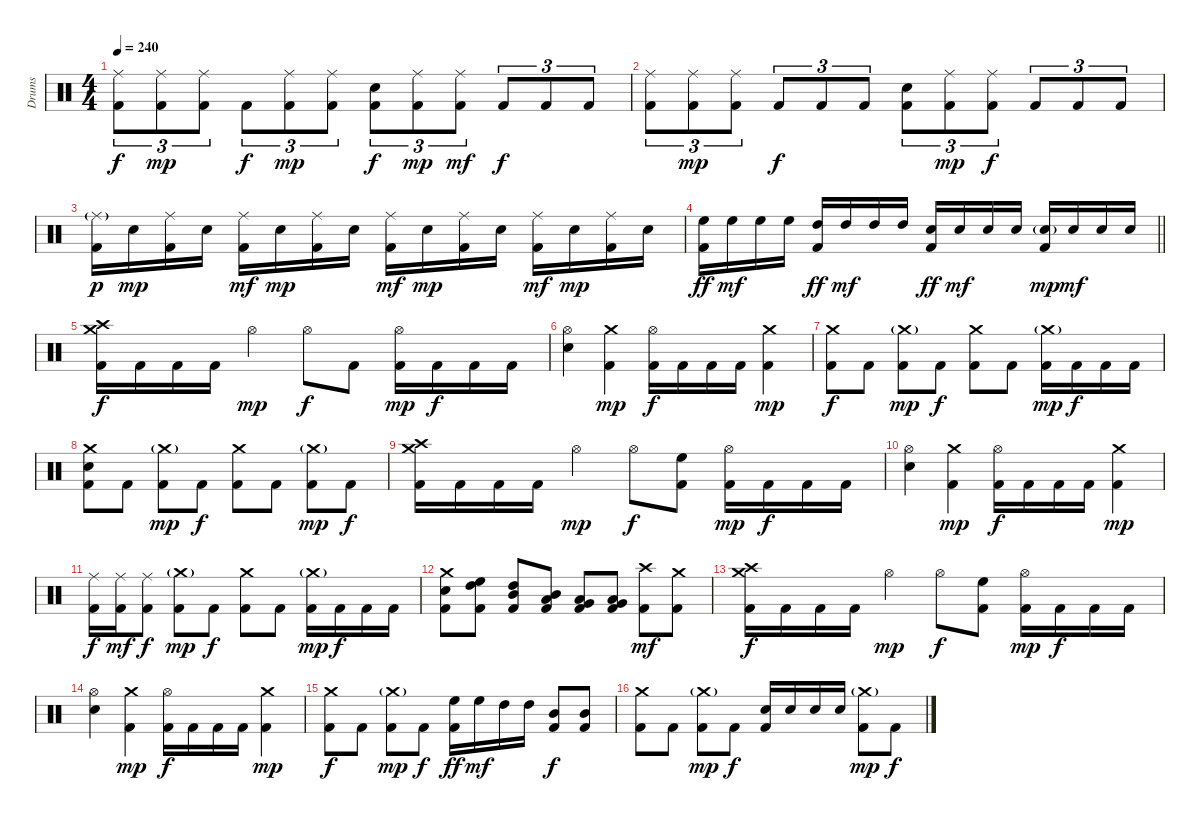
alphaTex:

\track ("Drums" "Drums") {instrument percussion}
\staff {score}
\articulation defaults
\ts (4 4)
\tempo 240
\clef neutral
\ks c
("Ride (middle)" "Kick (hit) 2").8{tu (3 2) dy f} ("Ride (middle)" "Kick (hit) 2").8{tu (3 2) dy mp} ("Ride (middle)" "Kick (hit) 2").8{tu (3 2)} "Kick (hit) 2".8{tu (3 2) dy f} ("Ride (middle)" "Kick (hit) 2").8{tu (3 2) dy mp} ("Ride (middle)" "Kick (hit) 2").8{tu (3 2)} ("Electric Snare (hit)" "Kick (hit) 2").8{tu (3 2) dy f} ("Ride (middle)" "Kick (hit) 2").8{tu (3 2) dy mp} ("Ride (middle)" "Kick (hit) 2").8{tu (3 2) dy mf} "Kick (hit) 2".8{tu (3 2) dy f} "Kick (hit) 2".8{tu (3 2)} "Kick (hit) 2".8{tu (3 2)} |
("Ride (middle)" "Kick (hit) 2").8{tu (3 2)} ("Ride (middle)" "Kick (hit) 2").8{tu (3 2) dy mp} ("Ride (middle)" "Kick (hit) 2").8{tu (3 2)} "Kick (hit) 2".8{tu (3 2) dy f} "Kick (hit) 2".8{tu (3 2)} "Kick (hit) 2".8{tu (3 2)} ("Electric Snare (hit)" "Kick (hit) 2").8{tu (3 2)} ("Ride (middle)" "Kick (hit) 2").8{tu (3 2) dy mp} ("Ride (middle)" "Kick (hit) 2").8{tu (3 2) dy f} "Kick (hit) 2".8{tu (3 2)} "Kick (hit) 2".8{tu (3 2)} "Kick (hit) 2".8{tu (3 2)} |
("Ride (middle)"{g} "Kick (hit) 2").16{dy p} "Electric Snare (hit)".16{dy mp} ("Ride (middle)" "Kick (hit) 2").16 "Electric Snare (hit)".16 ("Ride (middle)" "Kick (hit) 2").16{dy mf} "Electric Snare (hit)".16{dy mp} ("Ride (middle)" "Kick (hit) 2").16 "Electric Snare (hit)".16 ("Ride (middle)" "Kick (hit) 2").16{dy mf} "Electric Snare (hit)".16{dy mp} ("Ride (middle)" "Kick (hit) 2").16 "Electric Snare (hit)".16 ("Ride (middle)" "Kick (hit) 2").16{dy mf} "Electric Snare (hit)".16{dy mp} ("Ride (middle)" "Kick (hit) 2").16 "Electric Snare (hit)".16 |
\barLineRight lightlight
("High Floor Tom (hit)" "Kick (hit) 2").16{dy ff} "High Floor Tom (hit)".16{dy mf} "High Floor Tom (hit)".16 "High Floor Tom (hit)".16 ("High Tom (hit)" "Kick (hit) 2").16{dy ff} "High Tom (hit)".16{dy mf} "High Tom (hit)".16 "High Tom (hit)".16 ("Electric Snare (hit)" "Kick (hit) 2").16{dy ff} "Electric Snare (hit)".16{dy mf} "Electric Snare (hit)".16 "Electric Snare (hit)".16 ("Electric Snare (hit)"{g} "Kick (hit) 2").16{dy mp} "Electric Snare (hit)".16{dy mf} "Electric Snare (hit)".16 "Electric Snare (hit)".16 |
("Crash high (hit)" "Crash medium (hit)" "Kick (hit) 2").16{dy f} "Kick (hit) 2".16 "Kick (hit) 2".16 "Kick (hit) 2".16 "Hi-Hat (open)".4{dy mp} "Hi-Hat (open)".8{dy f} "Kick (hit) 2".8 ("Hi-Hat (open)" "Kick (hit) 2").16{dy mp} "Kick (hit) 2".16{dy f} "Kick (hit) 2".16 "Kick (hit) 2".16 |
("Hi-Hat (open)" "Electric Snare (hit)").4 ("Crash medium (hit)" "Kick (hit) 2").4{dy mp} ("Hi-Hat (open)" "Kick (hit) 2").16{dy f} "Kick (hit) 2".16 "Kick (hit) 2".16 "Kick (hit) 2".16 ("Crash medium (hit)" "Kick (hit) 2").4{dy mp} |
("Crash medium (hit)" "Kick (hit) 2").8{dy f} "Kick (hit) 2".8 ("Crash medium (hit)"{g} "Kick (hit) 2").8{dy mp} "Kick (hit) 2".8{dy f} ("Crash medium (hit)" "Kick (hit) 2").8 "Kick (hit) 2".8 ("Crash medium (hit)"{g} "Kick (hit) 2").16{dy mp} "Kick (hit) 2".16{dy f} "Kick (hit) 2".16 "Kick (hit) 2".16 |
("Crash medium (hit)" "Electric Snare (hit)" "Kick (hit) 2").8 "Kick (hit) 2".8 ("Crash medium (hit)"{g} "Kick (hit) 2").8{dy mp} "Kick (hit) 2".8{dy f} ("Crash medium (hit)" "Kick (hit) 2").8 "Kick (hit) 2".8 ("Crash medium (hit)"{g} "Kick (hit) 2").8{dy mp} "Kick (hit) 2".8{dy f} |
("Crash high (hit)" "Crash medium (hit)" "Kick (hit) 2").16 "Kick (hit) 2".16 "Kick (hit) 2".16 "Kick (hit) 2".16 "Hi-Hat (open)".4{dy mp} "Hi-Hat (open)".8{dy f} ("High Floor Tom (hit)" "Kick (hit) 2").8 ("Hi-Hat (open)" "Kick (hit) 2").16{dy mp} "Kick (hit) 2".16{dy f} "Kick (hit) 2".16 "Kick (hit) 2".16 |
("Hi-Hat (open)" "Electric Snare (hit)").4 ("Crash medium (hit)" "Kick (hit) 2").4{dy mp} ("Hi-Hat (open)" "Kick (hit) 2").16{dy f} "Kick (hit) 2".16 "Kick (hit) 2".16 "Kick (hit) 2".16 ("Crash medium (hit)" "Kick (hit) 2").4{dy mp} |
("Ride (middle)" "Kick (hit) 2").16{dy f} ("Ride (middle)" "Kick (hit) 2").16{dy mf} ("Ride (middle)" "Kick (hit) 2").8{dy f} ("Crash medium (hit)"{g} "Kick (hit) 2").8{dy mp} "Kick (hit) 2".8{dy f} ("Crash medium (hit)" "Kick (hit) 2").8 "Kick (hit) 2".8 ("Crash medium (hit)"{g} "Kick (hit) 2").16{dy mp} "Kick (hit) 2".16{dy f} "Kick (hit) 2".16 "Kick (hit) 2".16 |
("Crash medium (hit)" "Electric Snare (hit)" "Kick (hit) 2").8 ("High Floor Tom (hit)" "High Tom (hit)" "Kick (hit) 2").8 ("High Tom (hit)" "Mid Tom (hit)" "Kick (hit) 2").8 ("Mid Tom (hit)" "Low Tom (hit)" "Kick (hit) 2").8 ("Low Tom (hit)" "Very Low Tom (hit)" "Kick (hit) 2").8 ("Very Low Tom (hit)" "Low Floor Tom (hit)" "Kick (hit) 2").8 ("Crash high (hit)" "Kick (hit) 2").8{dy mf} ("Crash medium (hit)" "Kick (hit) 2").8 |
("Crash high (hit)" "Crash medium (hit)" "Kick (hit) 2").16{dy f} "Kick (hit) 2".16 "Kick (hit) 2".16 "Kick (hit) 2".16 "Hi-Hat (open)".4{dy mp} "Hi-Hat (open)".8{dy f} ("High Floor Tom (hit)" "Kick (hit) 2").8 ("Hi-Hat (open)" "Kick (hit) 2").16{dy mp} "Kick (hit) 2".16{dy f} "Kick (hit) 2".16 "Kick (hit) 2".16 |
("Hi-Hat (open)" "Electric Snare (hit)").4 ("Crash medium (hit)" "Kick (hit) 2").4{dy mp} ("Hi-Hat (open)" "Kick (hit) 2").16{dy f} "Kick (hit) 2".16 "Kick (hit) 2".16 "Kick (hit) 2".16 ("Crash medium (hit)" "Kick (hit) 2").4{dy mp} |
("Crash medium (hit)" "Kick (hit) 2").8{dy f} "Kick (hit) 2".8 ("Crash medium (hit)"{g} "Kick (hit) 2").8{dy mp} "Kick (hit) 2".8{dy f} ("High Floor Tom (hit)" "Kick (hit) 2").16{dy ff} "High Floor Tom (hit)".16{dy mf} "High Tom (hit)".16 "High Tom (hit)".16 ("Mid Tom (hit)" "Kick (hit) 2").8{dy f} ("Mid Tom (hit)" "Kick (hit) 2").8 |
("Crash medium (hit)" "Kick (hit) 2").8 "Kick (hit) 2".8 ("Crash medium (hit)"{g} "Kick (hit) 2").8{dy mp} "Kick (hit) 2".8{dy f} ("Electric Snare (hit)" "Kick (hit) 2").16 "Electric Snare (hit)".16 "Electric Snare (hit)".16 "Electric Snare (hit)".16 ("Crash medium (hit)"{g} "Kick (hit) 2").8{dy mp} "Kick (hit) 2".8{dy f}
